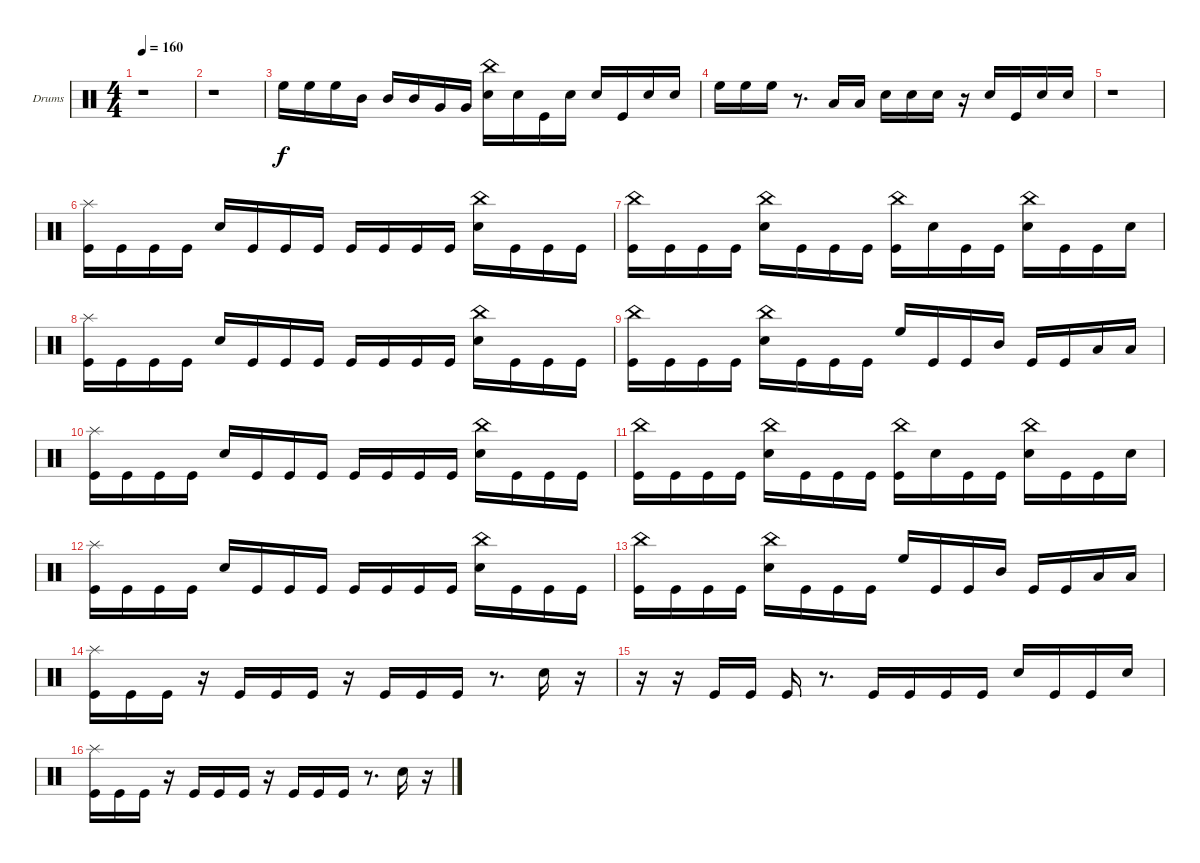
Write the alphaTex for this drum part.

\bracketExtendMode groupsimilarinstruments
\firstSystemTrackNameOrientation horizontal
\otherSystemsTrackNameOrientation horizontal
\track ("Drumkit" "Drums") {instrument percussion}
\staff {score}
\articulation defaults
\ts (4 4)
\tempo 160
\clef neutral
\ks c
r.1{dy f} |
r.1 |
"High Floor Tom (hit)".16 "High Floor Tom (hit)".16 "High Floor Tom (hit)".16 "Mid Tom (hit)".16 "Mid Tom (hit)".16 "Mid Tom (hit)".16 "Very Low Tom (hit)".16 "Very Low Tom (hit)".16 ("China (hit)" "Snare (hit) 2").16 "Snare (hit) 2".16 "Kick (hit)".16 "Snare (hit) 2".16 "Snare (hit) 2".16 "Kick (hit)".16 "Snare (hit) 2".16 "Snare (hit) 2".16 |
"High Floor Tom (hit)".16 "High Floor Tom (hit)".16 "High Floor Tom (hit)".16 r.8{d} "Low Tom (hit)".16 "Low Tom (hit)".16 "Snare (hit) 2".16 "Snare (hit) 2".16 "Snare (hit) 2".16 r.16 "Snare (hit) 2".16 "Kick (hit)".16 "Snare (hit) 2".16 "Snare (hit) 2".16 |
r.1 |
("Splash (hit)" "Kick (hit)").16 "Kick (hit)".16 "Kick (hit)".16 "Kick (hit)".16 "Snare (hit) 2".16 "Kick (hit)".16 "Kick (hit)".16 "Kick (hit)".16 "Kick (hit)".16 "Kick (hit)".16 "Kick (hit)".16 "Kick (hit)".16 ("China (hit)" "Snare (hit) 2").16 "Kick (hit)".16 "Kick (hit)".16 "Kick (hit)".16 |
("China (hit)" "Kick (hit)").16 "Kick (hit)".16 "Kick (hit)".16 "Kick (hit)".16 ("Snare (hit) 2" "China (hit)").16 "Kick (hit)".16 "Kick (hit)".16 "Kick (hit)".16 ("Kick (hit)" "China (hit)").16 "Snare (hit) 2".16 "Kick (hit)".16 "Kick (hit)".16 ("China (hit)" "Snare (hit) 2").16 "Kick (hit)".16 "Kick (hit)".16 "Snare (hit) 2".16 |
("Splash (hit)" "Kick (hit)").16 "Kick (hit)".16 "Kick (hit)".16 "Kick (hit)".16 "Snare (hit) 2".16 "Kick (hit)".16 "Kick (hit)".16 "Kick (hit)".16 "Kick (hit)".16 "Kick (hit)".16 "Kick (hit)".16 "Kick (hit)".16 ("China (hit)" "Snare (hit) 2").16 "Kick (hit)".16 "Kick (hit)".16 "Kick (hit)".16 |
("China (hit)" "Kick (hit)").16 "Kick (hit)".16 "Kick (hit)".16 "Kick (hit)".16 ("China (hit)" "Snare (hit) 2").16 "Kick (hit)".16 "Kick (hit)".16 "Kick (hit)".16 "High Floor Tom (hit)".16 "Kick (hit)".16 "Kick (hit)".16 "Mid Tom (hit)".16 "Kick (hit)".16 "Kick (hit)".16 "Low Tom (hit)".16 "Low Tom (hit)".16 |
("Splash (hit)" "Kick (hit)").16 "Kick (hit)".16 "Kick (hit)".16 "Kick (hit)".16 "Snare (hit) 2".16 "Kick (hit)".16 "Kick (hit)".16 "Kick (hit)".16 "Kick (hit)".16 "Kick (hit)".16 "Kick (hit)".16 "Kick (hit)".16 ("China (hit)" "Snare (hit) 2").16 "Kick (hit)".16 "Kick (hit)".16 "Kick (hit)".16 |
("China (hit)" "Kick (hit)").16 "Kick (hit)".16 "Kick (hit)".16 "Kick (hit)".16 ("Snare (hit) 2" "China (hit)").16 "Kick (hit)".16 "Kick (hit)".16 "Kick (hit)".16 ("Kick (hit)" "China (hit)").16 "Snare (hit) 2".16 "Kick (hit)".16 "Kick (hit)".16 ("China (hit)" "Snare (hit) 2").16 "Kick (hit)".16 "Kick (hit)".16 "Snare (hit) 2".16 |
("Splash (hit)" "Kick (hit)").16 "Kick (hit)".16 "Kick (hit)".16 "Kick (hit)".16 "Snare (hit) 2".16 "Kick (hit)".16 "Kick (hit)".16 "Kick (hit)".16 "Kick (hit)".16 "Kick (hit)".16 "Kick (hit)".16 "Kick (hit)".16 ("China (hit)" "Snare (hit) 2").16 "Kick (hit)".16 "Kick (hit)".16 "Kick (hit)".16 |
("China (hit)" "Kick (hit)").16 "Kick (hit)".16 "Kick (hit)".16 "Kick (hit)".16 ("China (hit)" "Snare (hit) 2").16 "Kick (hit)".16 "Kick (hit)".16 "Kick (hit)".16 "High Floor Tom (hit)".16 "Kick (hit)".16 "Kick (hit)".16 "Mid Tom (hit)".16 "Kick (hit)".16 "Kick (hit)".16 "Low Tom (hit)".16 "Low Tom (hit)".16 |
("Splash (hit)" "Kick (hit)").16 "Kick (hit)".16 "Kick (hit)".16 r.16 "Kick (hit)".16 "Kick (hit)".16 "Kick (hit)".16 r.16 "Kick (hit)".16 "Kick (hit)".16 "Kick (hit)".16 r.8{d} "Snare (hit) 2".16 r.16 |
r.16 r.16 "Kick (hit)".16 "Kick (hit)".16 "Kick (hit)".16 r.8{d} "Kick (hit)".16 "Kick (hit)".16 "Kick (hit)".16 "Kick (hit)".16 "Snare (hit) 2".16 "Kick (hit)".16 "Kick (hit)".16 "Snare (hit) 2".16 |
("Kick (hit)" "Splash (hit)").16 "Kick (hit)".16 "Kick (hit)".16 r.16 "Kick (hit)".16 "Kick (hit)".16 "Kick (hit)".16 r.16 "Kick (hit)".16 "Kick (hit)".16 "Kick (hit)".16 r.8{d} "Snare (hit) 2".16 r.16
